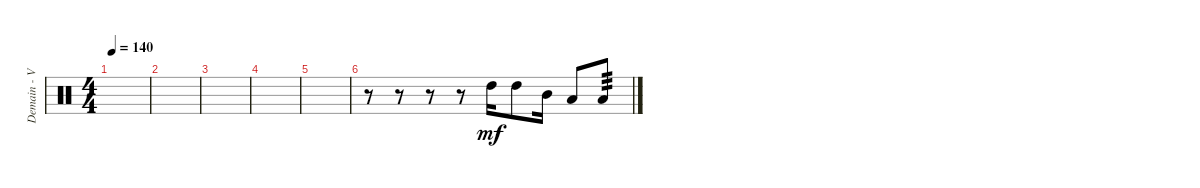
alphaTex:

\track ("Demain - Various Perc." "Demain - V") {instrument percussion}
\staff {score}
\articulation defaults
\ts (4 4)
\tempo 140
\clef neutral
\ks c
|
|
|
|
|
r.8 r.8 r.8 r.8 "High Tom (hit)".16{dy mf volume 16} "High Tom (hit)".8 "Mid Tom (hit)".16 "Low Tom (hit)".8 "Low Tom (hit)".8{tp 3}
